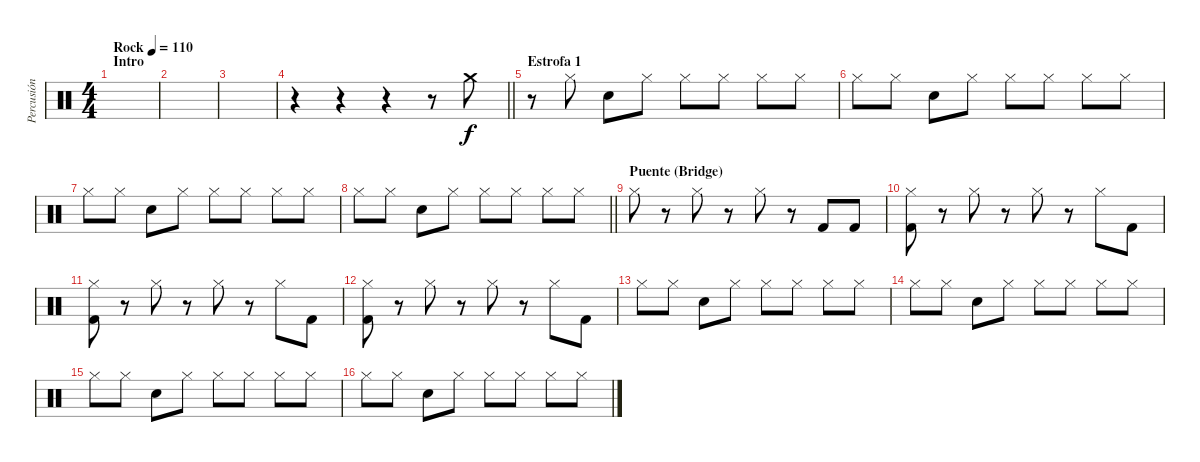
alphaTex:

\track ("Percusión" "Percusión") {instrument percussion}
\staff {score}
\articulation defaults
\ts (4 4)
\section ("" "Intro")
\tempo (110 "Rock")
\clef neutral
\ks c
|
|
|
\barLineRight lightlight
r.4 r.4 r.4 r.8 "Crash medium (hit)".8 |
\section ("" "Estrofa 1")
r.8 "Hi-Hat (closed)".8{dy f} "Snare (hit) 2".8 "Hi-Hat (closed)".8 "Hi-Hat (closed)".8 "Hi-Hat (closed)".8 "Hi-Hat (closed)".8 "Hi-Hat (closed)".8 |
"Hi-Hat (closed)".8 "Hi-Hat (closed)".8 "Snare (hit) 2".8 "Hi-Hat (closed)".8 "Hi-Hat (closed)".8 "Hi-Hat (closed)".8 "Hi-Hat (closed)".8 "Hi-Hat (closed)".8 |
"Hi-Hat (closed)".8 "Hi-Hat (closed)".8 "Snare (hit) 2".8 "Hi-Hat (closed)".8 "Hi-Hat (closed)".8 "Hi-Hat (closed)".8 "Hi-Hat (closed)".8 "Hi-Hat (closed)".8 |
\barLineRight lightlight "Hi-Hat (closed)".8 "Hi-Hat (closed)".8 "Snare (hit) 2".8 "Hi-Hat (closed)".8 "Hi-Hat (closed)".8 "Hi-Hat (closed)".8 "Hi-Hat (closed)".8 "Hi-Hat (closed)".8
|
\section ("" "Puente (Bridge)")
"Hi-Hat (closed)".8 r.8 "Hi-Hat (closed)".8 r.8 "Hi-Hat (closed)".8 r.8 "Kick (hit) 2".8 "Kick (hit) 2".8 |
("Hi-Hat (closed)" "Kick (hit) 2").8 r.8 "Hi-Hat (closed)".8 r.8 "Hi-Hat (closed)".8 r.8 "Hi-Hat (closed)".8 "Kick (hit) 2".8 |
("Hi-Hat (closed)" "Kick (hit) 2").8 r.8 "Hi-Hat (closed)".8 r.8 "Hi-Hat (closed)".8 r.8 "Hi-Hat (closed)".8 "Kick (hit) 2".8 |
("Hi-Hat (closed)" "Kick (hit) 2").8 r.8 "Hi-Hat (closed)".8 r.8 "Hi-Hat (closed)".8 r.8 "Hi-Hat (closed)".8 "Kick (hit) 2".8 |
"Hi-Hat (closed)".8 "Hi-Hat (closed)".8 "Snare (hit) 2".8 "Hi-Hat (closed)".8 "Hi-Hat (closed)".8 "Hi-Hat (closed)".8 "Hi-Hat (closed)".8 "Hi-Hat (closed)".8 |
"Hi-Hat (closed)".8 "Hi-Hat (closed)".8 "Snare (hit) 2".8 "Hi-Hat (closed)".8 "Hi-Hat (closed)".8 "Hi-Hat (closed)".8 "Hi-Hat (closed)".8 "Hi-Hat (closed)".8 |
"Hi-Hat (closed)".8 "Hi-Hat (closed)".8 "Snare (hit) 2".8 "Hi-Hat (closed)".8 "Hi-Hat (closed)".8 "Hi-Hat (closed)".8 "Hi-Hat (closed)".8 "Hi-Hat (closed)".8 |
"Hi-Hat (closed)".8 "Hi-Hat (closed)".8 "Snare (hit) 2".8 "Hi-Hat (closed)".8 "Hi-Hat (closed)".8 "Hi-Hat (closed)".8 "Hi-Hat (closed)".8 "Hi-Hat (closed)".8
